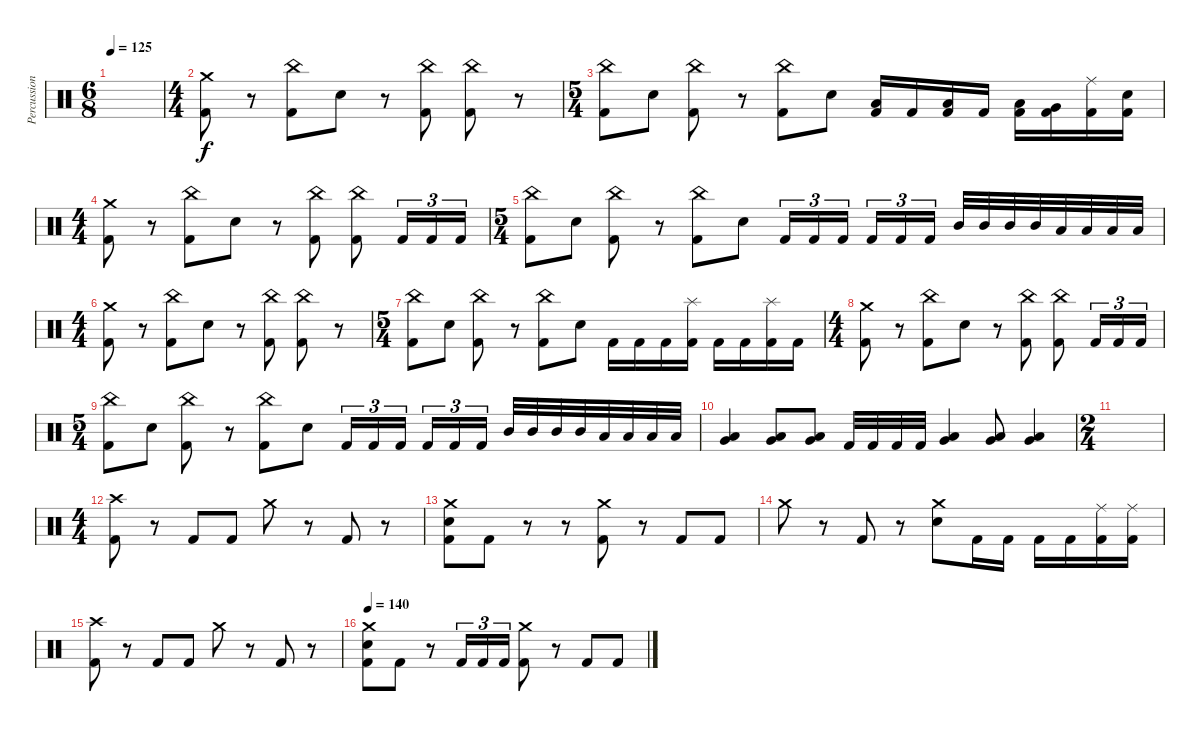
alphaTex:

\track ("Percussion" "Percussion") {solo instrument percussion}
\staff {score}
\articulation defaults
\ts (6 8)
\tempo 125
\clef neutral
\ks c
|
\ts (4 4)
("Crash medium (hit)" "Kick (hit) 2").8 r.8 ("China (hit)" "Kick (hit) 2").8 "Electric Snare (hit)".8 r.8 ("China (hit)" "Kick (hit) 2").8 ("China (hit)" "Kick (hit) 2").8 r.8 |
\ts (5 4)
("China (hit)" "Kick (hit) 2").8 "Electric Snare (hit)".8 ("China (hit)" "Kick (hit) 2").8 r.8 ("China (hit)" "Kick (hit) 2").8 "Electric Snare (hit)".8 ("Low Floor Tom (hit)" "Kick (hit) 2").16 "Kick (hit) 2".16 ("Low Floor Tom (hit)" "Kick (hit) 2").16 "Kick (hit) 2".16 ("Low Tom (hit)" "Kick (hit) 2").16 ("Very Low Tom (hit)" "Kick (hit) 2").16 ("Ride (middle)" "Kick (hit) 2").16 ("Electric Snare (hit)" "Kick (hit) 2").16 |
\ts (4 4)
("Crash medium (hit)" "Kick (hit) 2").8 r.8 ("China (hit)" "Kick (hit) 2").8 "Electric Snare (hit)".8 r.8 ("China (hit)" "Kick (hit) 2").8 ("China (hit)" "Kick (hit) 2").8 "Kick (hit) 2".16{tu (3 2)} "Kick (hit) 2".16{tu (3 2)} "Kick (hit) 2".16{tu (3 2)} |
\ts (5 4)
("China (hit)" "Kick (hit) 2").8 "Electric Snare (hit)".8 ("China (hit)" "Kick (hit) 2").8 r.8 ("China (hit)" "Kick (hit) 2").8 "Electric Snare (hit)".8 "Kick (hit) 2".16{tu (3 2)} "Kick (hit) 2".16{tu (3 2)} "Kick (hit) 2".16{tu (3 2) beam splitsecondary} "Kick (hit) 2".16{tu (3 2)} "Kick (hit) 2".16{tu (3 2)} "Kick (hit) 2".16{tu (3 2)} "Mid Tom (hit)".32 "Mid Tom (hit)".32 "Mid Tom (hit)".32 "Mid Tom (hit)".32 "Low Tom (hit)".32 "Low Tom (hit)".32 "Low Tom (hit)".32 "Low Tom (hit)".32 |
\ts (4 4)
("Crash medium (hit)" "Kick (hit) 2").8 r.8 ("China (hit)" "Kick (hit) 2").8 "Electric Snare (hit)".8 r.8 ("China (hit)" "Kick (hit) 2").8 ("China (hit)" "Kick (hit) 2").8 r.8 |
\ts (5 4)
("China (hit)" "Kick (hit) 2").8 "Electric Snare (hit)".8 ("China (hit)" "Kick (hit) 2").8 r.8 ("China (hit)" "Kick (hit) 2").8 "Electric Snare (hit)".8 "Kick (hit) 2".16 "Kick (hit) 2".16 "Kick (hit) 2".16 ("Splash (hit)" "Kick (hit) 2").16 "Kick (hit) 2".16 "Kick (hit) 2".16 ("Splash (hit)" "Kick (hit) 2").16 "Kick (hit) 2".16 |
\ts (4 4)
("Crash medium (hit)" "Kick (hit) 2").8 r.8 ("China (hit)" "Kick (hit) 2").8 "Electric Snare (hit)".8 r.8 ("China (hit)" "Kick (hit) 2").8 ("China (hit)" "Kick (hit) 2").8 "Kick (hit) 2".16{tu (3 2)} "Kick (hit) 2".16{tu (3 2)} "Kick (hit) 2".16{tu (3 2)} |
\ts (5 4)
("China (hit)" "Kick (hit) 2").8 "Electric Snare (hit)".8 ("China (hit)" "Kick (hit) 2").8 r.8 ("China (hit)" "Kick (hit) 2").8 "Electric Snare (hit)".8 "Kick (hit) 2".16{tu (3 2)} "Kick (hit) 2".16{tu (3 2)} "Kick (hit) 2".16{tu (3 2) beam splitsecondary} "Kick (hit) 2".16{tu (3 2)} "Kick (hit) 2".16{tu (3 2)} "Kick (hit) 2".16{tu (3 2)} "Mid Tom (hit)".32 "Mid Tom (hit)".32 "Mid Tom (hit)".32 "Mid Tom (hit)".32 "Low Tom (hit)".32 "Low Tom (hit)".32 "Low Tom (hit)".32 "Low Tom (hit)".32 |
("Very Low Tom (hit)" "Low Floor Tom (hit)").4 ("Very Low Tom (hit)" "Low Floor Tom (hit)").8 ("Very Low Tom (hit)" "Low Floor Tom (hit)").8 "Kick (hit) 2".32 "Kick (hit) 2".32 "Kick (hit) 2".32 "Kick (hit) 2".32 ("Very Low Tom (hit)" "Low Floor Tom (hit)").4 ("Very Low Tom (hit)" "Low Floor Tom (hit)").8 ("Very Low Tom (hit)" "Low Floor Tom (hit)").4 |
\ts (2 4)
|
\ts (4 4)
("Crash high (hit)" "Kick (hit) 2").8 r.8 "Kick (hit) 2".8 "Kick (hit) 2".8 "Crash medium (hit)".8 r.8 "Kick (hit) 2".8 r.8 |
("Crash medium (hit)" "Electric Snare (hit)" "Kick (hit) 2").8 "Kick (hit) 2".8 r.8 r.8 ("Crash medium (hit)" "Kick (hit) 2").8 r.8 "Kick (hit) 2".8 "Kick (hit) 2".8 |
"Crash medium (hit)".8 r.8 "Kick (hit) 2".8 r.8 ("Crash medium (hit)" "Electric Snare (hit)").8 "Kick (hit) 2".16 "Kick (hit) 2".16 "Kick (hit) 2".16 "Kick (hit) 2".16 ("Ride (middle)" "Kick (hit) 2").16 ("Ride (middle)" "Kick (hit) 2").16 |
("Crash high (hit)" "Kick (hit) 2").8 r.8 "Kick (hit) 2".8 "Kick (hit) 2".8 "Crash medium (hit)".8 r.8 "Kick (hit) 2".8 r.8 |
\tempo 140
("Crash medium (hit)" "Electric Snare (hit)" "Kick (hit) 2").8 "Kick (hit) 2".8 r.8 "Kick (hit) 2".16{tu (3 2)} "Kick (hit) 2".16{tu (3 2)} "Kick (hit) 2".16{tu (3 2)} ("Crash medium (hit)" "Kick (hit) 2").8 r.8 "Kick (hit) 2".8 "Kick (hit) 2".8
